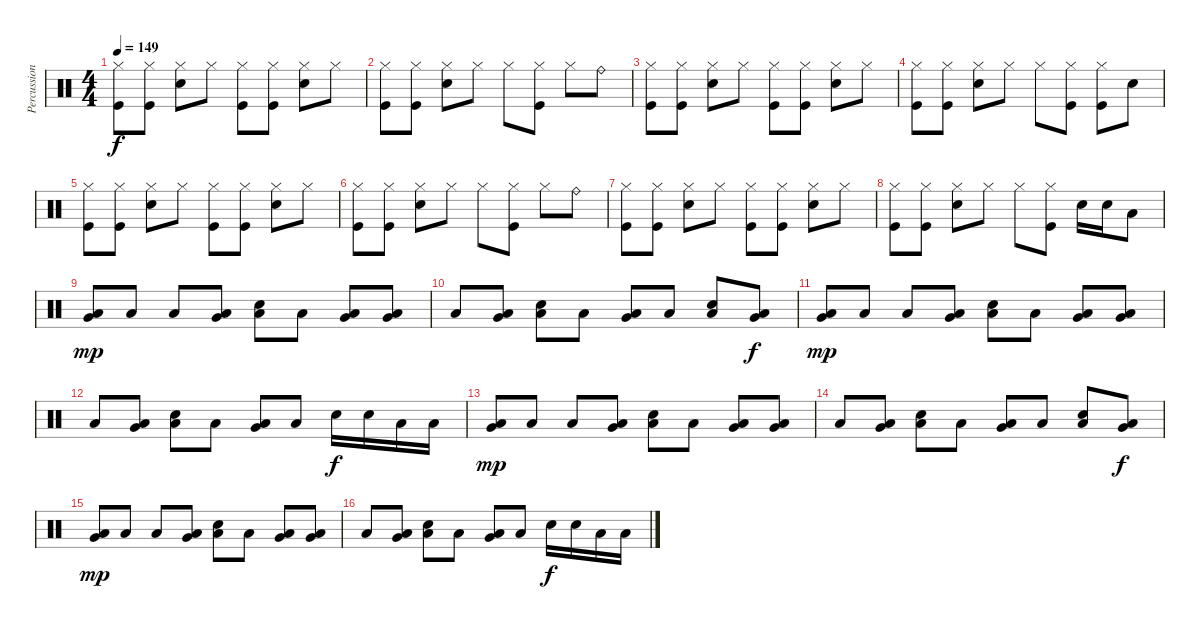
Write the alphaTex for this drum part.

\track ("Percussion" "Percussion") {instrument percussion}
\staff {score}
\articulation defaults
\ts (4 4)
\tempo 149
\clef neutral
\ks c
("Hi-Hat (closed)" "Kick (hit)").8{dy f} ("Hi-Hat (closed)" "Kick (hit)").8 ("Hi-Hat (closed)" "Snare (hit) 2").8 "Hi-Hat (closed)".8 ("Hi-Hat (closed)" "Kick (hit)").8 ("Hi-Hat (closed)" "Kick (hit)").8 ("Hi-Hat (closed)" "Snare (hit) 2").8 "Hi-Hat (closed)".8 |
("Hi-Hat (closed)" "Kick (hit)").8 ("Hi-Hat (closed)" "Kick (hit)").8 ("Hi-Hat (closed)" "Snare (hit) 2").8 "Hi-Hat (closed)".8 "Hi-Hat (closed)".8 ("Hi-Hat (closed)" "Kick (hit)").8 "Hi-Hat (closed)".8 "Ride (bell)".8 |
("Hi-Hat (closed)" "Kick (hit)").8 ("Hi-Hat (closed)" "Kick (hit)").8 ("Hi-Hat (closed)" "Snare (hit) 2").8 "Hi-Hat (closed)".8 ("Hi-Hat (closed)" "Kick (hit)").8 ("Hi-Hat (closed)" "Kick (hit)").8 ("Hi-Hat (closed)" "Snare (hit) 2").8 "Hi-Hat (closed)".8 |
("Hi-Hat (closed)" "Kick (hit)").8 ("Hi-Hat (closed)" "Kick (hit)").8 ("Hi-Hat (closed)" "Snare (hit) 2").8 "Hi-Hat (closed)".8 "Hi-Hat (closed)".8 ("Hi-Hat (closed)" "Kick (hit)").8 ("Hi-Hat (closed)" "Kick (hit)").8 "Snare (hit) 2".8 |
("Hi-Hat (closed)" "Kick (hit)").8 ("Hi-Hat (closed)" "Kick (hit)").8 ("Hi-Hat (closed)" "Snare (hit) 2").8 "Hi-Hat (closed)".8 ("Hi-Hat (closed)" "Kick (hit)").8 ("Hi-Hat (closed)" "Kick (hit)").8 ("Hi-Hat (closed)" "Snare (hit) 2").8 "Hi-Hat (closed)".8 |
("Hi-Hat (closed)" "Kick (hit)").8 ("Hi-Hat (closed)" "Kick (hit)").8 ("Hi-Hat (closed)" "Snare (hit) 2").8 "Hi-Hat (closed)".8 "Hi-Hat (closed)".8 ("Hi-Hat (closed)" "Kick (hit)").8 "Hi-Hat (closed)".8 "Ride (bell)".8 |
("Hi-Hat (closed)" "Kick (hit)").8 ("Hi-Hat (closed)" "Kick (hit)").8 ("Hi-Hat (closed)" "Snare (hit) 2").8 "Hi-Hat (closed)".8 ("Hi-Hat (closed)" "Kick (hit)").8 ("Hi-Hat (closed)" "Kick (hit)").8 ("Hi-Hat (closed)" "Snare (hit) 2").8 "Hi-Hat (closed)".8 |
("Hi-Hat (closed)" "Kick (hit)").8 ("Hi-Hat (closed)" "Kick (hit)").8 ("Hi-Hat (closed)" "Snare (hit) 2").8 "Hi-Hat (closed)".8 "Hi-Hat (closed)".8 ("Hi-Hat (closed)" "Kick (hit)").8 "Snare (hit) 2".16 "Snare (hit) 2".16 "Low Tom (hit)".8 |
("Very Low Tom (hit)" "Low Tom (hit)").8{dy mp} "Low Tom (hit)".8 "Low Tom (hit)".8 ("Very Low Tom (hit)" "Low Tom (hit)").8 ("Snare (hit) 2" "Low Tom (hit)").8 "Low Tom (hit)".8 ("Very Low Tom (hit)" "Low Tom (hit)").8 ("Very Low Tom (hit)" "Low Tom (hit)").8 |
"Low Tom (hit)".8 ("Very Low Tom (hit)" "Low Tom (hit)").8 ("Snare (hit) 2" "Low Tom (hit)").8 "Low Tom (hit)".8 ("Very Low Tom (hit)" "Low Tom (hit)").8 "Low Tom (hit)".8 ("Snare (hit) 2" "Low Tom (hit)").8 ("Very Low Tom (hit)" "Low Tom (hit)").8{dy f} |
("Very Low Tom (hit)" "Low Tom (hit)").8{dy mp} "Low Tom (hit)".8 "Low Tom (hit)".8 ("Very Low Tom (hit)" "Low Tom (hit)").8 ("Snare (hit) 2" "Low Tom (hit)").8 "Low Tom (hit)".8 ("Very Low Tom (hit)" "Low Tom (hit)").8 ("Very Low Tom (hit)" "Low Tom (hit)").8 |
"Low Tom (hit)".8 ("Very Low Tom (hit)" "Low Tom (hit)").8 ("Snare (hit) 2" "Low Tom (hit)").8 "Low Tom (hit)".8 ("Very Low Tom (hit)" "Low Tom (hit)").8 "Low Tom (hit)".8 "Snare (hit) 2".16{dy f} "Snare (hit) 2".16 "Low Tom (hit)".16 "Low Tom (hit)".16 |
("Very Low Tom (hit)" "Low Tom (hit)").8{dy mp} "Low Tom (hit)".8 "Low Tom (hit)".8 ("Very Low Tom (hit)" "Low Tom (hit)").8 ("Snare (hit) 2" "Low Tom (hit)").8 "Low Tom (hit)".8 ("Very Low Tom (hit)" "Low Tom (hit)").8 ("Very Low Tom (hit)" "Low Tom (hit)").8 |
"Low Tom (hit)".8 ("Very Low Tom (hit)" "Low Tom (hit)").8 ("Snare (hit) 2" "Low Tom (hit)").8 "Low Tom (hit)".8 ("Very Low Tom (hit)" "Low Tom (hit)").8 "Low Tom (hit)".8 ("Snare (hit) 2" "Low Tom (hit)").8 ("Very Low Tom (hit)" "Low Tom (hit)").8{dy f} |
("Very Low Tom (hit)" "Low Tom (hit)").8{dy mp} "Low Tom (hit)".8 "Low Tom (hit)".8 ("Very Low Tom (hit)" "Low Tom (hit)").8 ("Snare (hit) 2" "Low Tom (hit)").8 "Low Tom (hit)".8 ("Very Low Tom (hit)" "Low Tom (hit)").8 ("Very Low Tom (hit)" "Low Tom (hit)").8 |
"Low Tom (hit)".8 ("Very Low Tom (hit)" "Low Tom (hit)").8 ("Snare (hit) 2" "Low Tom (hit)").8 "Low Tom (hit)".8 ("Very Low Tom (hit)" "Low Tom (hit)").8 "Low Tom (hit)".8 "Snare (hit) 2".16{dy f} "Snare (hit) 2".16 "Low Tom (hit)".16 "Low Tom (hit)".16
